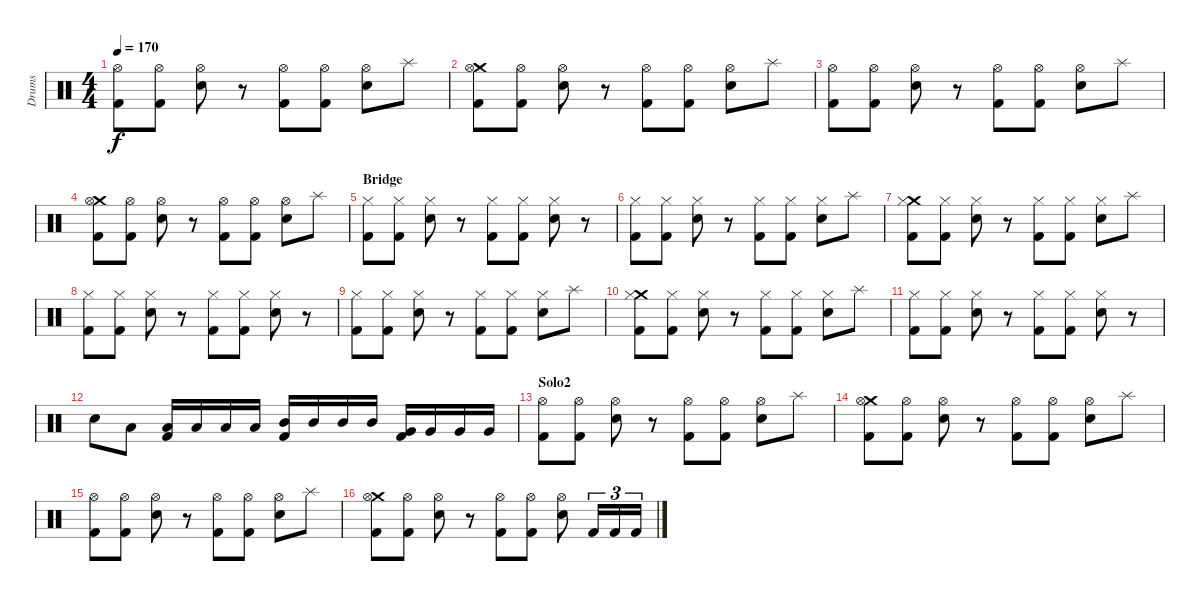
\track ("Drums" "Drums") {instrument percussion}
\staff {score}
\articulation defaults
\ts (4 4)
\tempo 170
\clef neutral
\ks c
("Hi-Hat (open)" "Kick (hit) 2").8{dy f} ("Hi-Hat (open)" "Kick (hit) 2").8 ("Hi-Hat (open)" "Snare (hit) 2").8 r.8 ("Hi-Hat (open)" "Kick (hit) 2").8 ("Hi-Hat (open)" "Kick (hit) 2").8 ("Hi-Hat (open)" "Snare (hit) 2").8 "Splash (hit)".8 |
("Crash medium (hit)" "Hi-Hat (open)" "Kick (hit) 2").8 ("Hi-Hat (open)" "Kick (hit) 2").8 ("Hi-Hat (open)" "Snare (hit) 2").8 r.8 ("Hi-Hat (open)" "Kick (hit) 2").8 ("Hi-Hat (open)" "Kick (hit) 2").8 ("Hi-Hat (open)" "Snare (hit) 2").8 "Splash (hit)".8 |
("Hi-Hat (open)" "Kick (hit) 2").8 ("Hi-Hat (open)" "Kick (hit) 2").8 ("Hi-Hat (open)" "Snare (hit) 2").8 r.8 ("Hi-Hat (open)" "Kick (hit) 2").8 ("Hi-Hat (open)" "Kick (hit) 2").8 ("Hi-Hat (open)" "Snare (hit) 2").8 "Splash (hit)".8 |
("Crash medium (hit)" "Hi-Hat (open)" "Kick (hit) 2").8 ("Hi-Hat (open)" "Kick (hit) 2").8 ("Hi-Hat (open)" "Snare (hit) 2").8 r.8 ("Hi-Hat (open)" "Kick (hit) 2").8 ("Hi-Hat (open)" "Kick (hit) 2").8 ("Hi-Hat (open)" "Snare (hit) 2").8 "Splash (hit)".8 |
\section ("" "Bridge")
("Hi-Hat (closed)" "Kick (hit) 2").8 ("Hi-Hat (closed)" "Kick (hit) 2").8 ("Hi-Hat (closed)" "Snare (hit) 2").8 r.8 ("Hi-Hat (closed)" "Kick (hit) 2").8 ("Hi-Hat (closed)" "Kick (hit) 2").8 ("Hi-Hat (closed)" "Snare (hit) 2").8 r.8 |
("Hi-Hat (closed)" "Kick (hit) 2").8 ("Hi-Hat (closed)" "Kick (hit) 2").8 ("Hi-Hat (closed)" "Snare (hit) 2").8 r.8 ("Hi-Hat (closed)" "Kick (hit) 2").8 ("Hi-Hat (closed)" "Kick (hit) 2").8 ("Hi-Hat (closed)" "Snare (hit) 2").8 "Splash (hit)".8 |
("Crash medium (hit)" "Hi-Hat (closed)" "Kick (hit) 2").8 ("Hi-Hat (closed)" "Kick (hit) 2").8 ("Hi-Hat (closed)" "Snare (hit) 2").8 r.8 ("Hi-Hat (closed)" "Kick (hit) 2").8 ("Hi-Hat (closed)" "Kick (hit) 2").8 ("Hi-Hat (closed)" "Snare (hit) 2").8 "Splash (hit)".8 |
("Hi-Hat (closed)" "Kick (hit) 2").8 ("Hi-Hat (closed)" "Kick (hit) 2").8 ("Hi-Hat (closed)" "Snare (hit) 2").8 r.8 ("Hi-Hat (closed)" "Kick (hit) 2").8 ("Hi-Hat (closed)" "Kick (hit) 2").8 ("Hi-Hat (closed)" "Snare (hit) 2").8 r.8 |
("Hi-Hat (closed)" "Kick (hit) 2").8 ("Hi-Hat (closed)" "Kick (hit) 2").8 ("Hi-Hat (closed)" "Snare (hit) 2").8 r.8 ("Hi-Hat (closed)" "Kick (hit) 2").8 ("Hi-Hat (closed)" "Kick (hit) 2").8 ("Hi-Hat (closed)" "Snare (hit) 2").8 "Splash (hit)".8 |
("Crash medium (hit)" "Hi-Hat (closed)" "Kick (hit) 2").8 ("Hi-Hat (closed)" "Kick (hit) 2").8 ("Hi-Hat (closed)" "Snare (hit) 2").8 r.8 ("Hi-Hat (closed)" "Kick (hit) 2").8 ("Hi-Hat (closed)" "Kick (hit) 2").8 ("Hi-Hat (closed)" "Snare (hit) 2").8 "Splash (hit)".8 |
("Hi-Hat (closed)" "Kick (hit) 2").8 ("Hi-Hat (closed)" "Kick (hit) 2").8 ("Hi-Hat (closed)" "Snare (hit) 2").8 r.8 ("Hi-Hat (closed)" "Kick (hit) 2").8 ("Hi-Hat (closed)" "Kick (hit) 2").8 ("Hi-Hat (closed)" "Snare (hit) 2").8 r.8 |
"Snare (hit) 2".8 "Low Tom (hit)".8 ("Low Tom (hit)" "Kick (hit) 2").16 "Low Tom (hit)".16 "Low Tom (hit)".16 "Low Tom (hit)".16 ("Mid Tom (hit)" "Kick (hit) 2").16 "Mid Tom (hit)".16 "Mid Tom (hit)".16 "Mid Tom (hit)".16 ("Very Low Tom (hit)" "Kick (hit) 2").16 "Very Low Tom (hit)".16 "Very Low Tom (hit)".16 "Very Low Tom (hit)".16 |
\section ("" "Solo2")
("Hi-Hat (open)" "Kick (hit) 2").8 ("Hi-Hat (open)" "Kick (hit) 2").8 ("Hi-Hat (open)" "Snare (hit) 2").8 r.8 ("Hi-Hat (open)" "Kick (hit) 2").8 ("Hi-Hat (open)" "Kick (hit) 2").8 ("Hi-Hat (open)" "Snare (hit) 2").8 "Splash (hit)".8 |
("Crash medium (hit)" "Hi-Hat (open)" "Kick (hit) 2").8 ("Hi-Hat (open)" "Kick (hit) 2").8 ("Hi-Hat (open)" "Snare (hit) 2").8 r.8 ("Hi-Hat (open)" "Kick (hit) 2").8 ("Hi-Hat (open)" "Kick (hit) 2").8 ("Hi-Hat (open)" "Snare (hit) 2").8 "Splash (hit)".8 |
("Hi-Hat (open)" "Kick (hit) 2").8 ("Hi-Hat (open)" "Kick (hit) 2").8 ("Hi-Hat (open)" "Snare (hit) 2").8 r.8 ("Hi-Hat (open)" "Kick (hit) 2").8 ("Hi-Hat (open)" "Kick (hit) 2").8 ("Hi-Hat (open)" "Snare (hit) 2").8 "Splash (hit)".8 |
("Crash medium (hit)" "Hi-Hat (open)" "Kick (hit) 2").8 ("Hi-Hat (open)" "Kick (hit) 2").8 ("Hi-Hat (open)" "Snare (hit) 2").8 r.8 ("Hi-Hat (open)" "Kick (hit) 2").8 ("Hi-Hat (open)" "Kick (hit) 2").8 ("Hi-Hat (open)" "Snare (hit) 2").8 "Kick (hit) 2".16{tu (3 2)} "Kick (hit) 2".16{tu (3 2)} "Kick (hit) 2".16{tu (3 2)}
